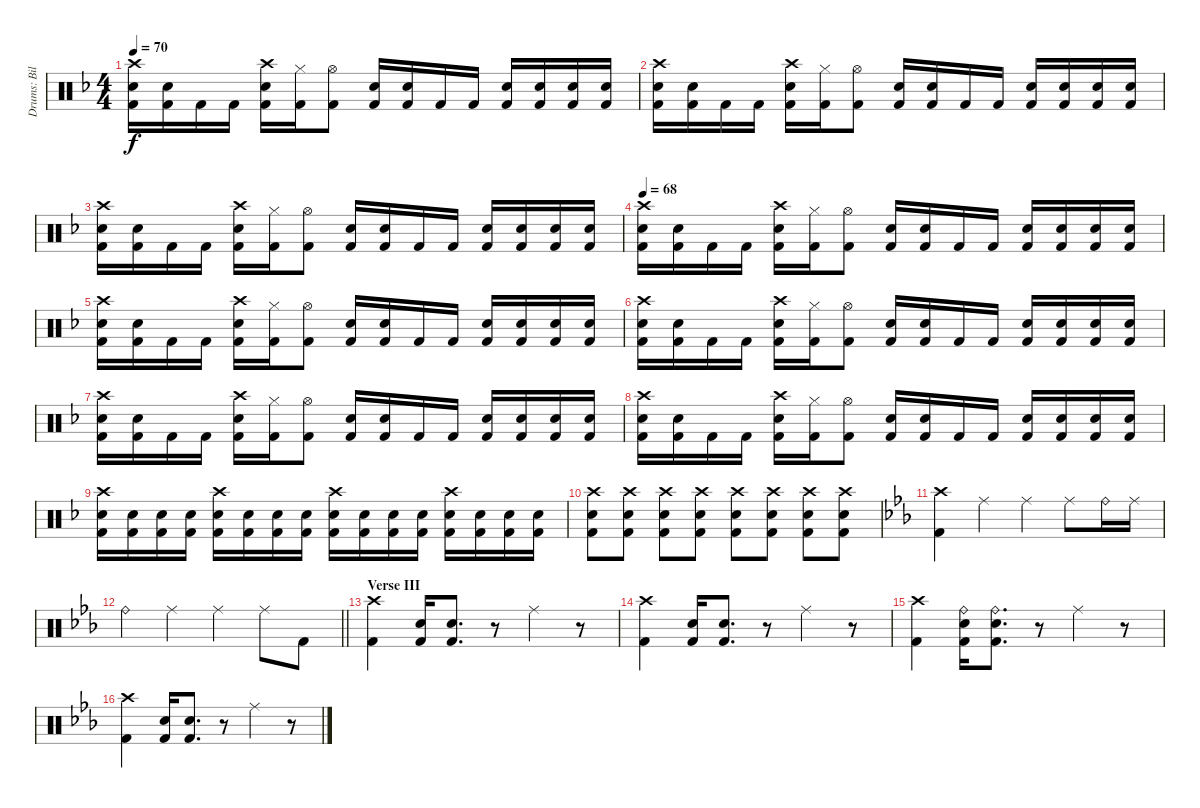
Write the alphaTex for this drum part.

\track ("Drums: Bill" "Drums: Bil") {instrument percussion}
\staff {score}
\articulation defaults
\ts (4 4)
\tempo 70
\clef neutral
\ks dminor
("Crash high (hit)" "Electric Snare (hit)" "Kick (hit) 2").16{dy f} ("Electric Snare (hit)" "Kick (hit) 2").16 "Kick (hit) 2".16 "Kick (hit) 2".16 ("Crash high (hit)" "Snare (hit) 2" "Kick (hit) 2").16 ("Hi-Hat (closed)" "Kick (hit) 2").16 ("Hi-Hat (open)" "Kick (hit) 2").8 ("Electric Snare (hit)" "Kick (hit) 2").16 ("Electric Snare (hit)" "Kick (hit) 2").16 "Kick (hit) 2".16 "Kick (hit) 2".16 ("Electric Snare (hit)" "Kick (hit) 2").16 ("Electric Snare (hit)" "Kick (hit) 2").16 ("Electric Snare (hit)" "Kick (hit) 2").16 ("Electric Snare (hit)" "Kick (hit) 2").16 |
("Crash high (hit)" "Electric Snare (hit)" "Kick (hit) 2").16 ("Electric Snare (hit)" "Kick (hit) 2").16 "Kick (hit) 2".16 "Kick (hit) 2".16 ("Crash high (hit)" "Snare (hit) 2" "Kick (hit) 2").16 ("Hi-Hat (closed)" "Kick (hit) 2").16 ("Hi-Hat (open)" "Kick (hit) 2").8 ("Electric Snare (hit)" "Kick (hit) 2").16 ("Electric Snare (hit)" "Kick (hit) 2").16 "Kick (hit) 2".16 "Kick (hit) 2".16 ("Electric Snare (hit)" "Kick (hit) 2").16 ("Electric Snare (hit)" "Kick (hit) 2").16 ("Electric Snare (hit)" "Kick (hit) 2").16 ("Electric Snare (hit)" "Kick (hit) 2").16 |
("Crash high (hit)" "Electric Snare (hit)" "Kick (hit) 2").16 ("Electric Snare (hit)" "Kick (hit) 2").16 "Kick (hit) 2".16 "Kick (hit) 2".16 ("Crash high (hit)" "Snare (hit) 2" "Kick (hit) 2").16 ("Hi-Hat (closed)" "Kick (hit) 2").16 ("Hi-Hat (open)" "Kick (hit) 2").8 ("Electric Snare (hit)" "Kick (hit) 2").16 ("Electric Snare (hit)" "Kick (hit) 2").16 "Kick (hit) 2".16 "Kick (hit) 2".16 ("Electric Snare (hit)" "Kick (hit) 2").16 ("Electric Snare (hit)" "Kick (hit) 2").16 ("Electric Snare (hit)" "Kick (hit) 2").16 ("Electric Snare (hit)" "Kick (hit) 2").16 |
\tempo 68
("Crash high (hit)" "Electric Snare (hit)" "Kick (hit) 2").16 ("Electric Snare (hit)" "Kick (hit) 2").16 "Kick (hit) 2".16 "Kick (hit) 2".16 ("Crash high (hit)" "Snare (hit) 2" "Kick (hit) 2").16 ("Hi-Hat (closed)" "Kick (hit) 2").16 ("Hi-Hat (open)" "Kick (hit) 2").8 ("Electric Snare (hit)" "Kick (hit) 2").16 ("Electric Snare (hit)" "Kick (hit) 2").16 "Kick (hit) 2".16 "Kick (hit) 2".16 ("Electric Snare (hit)" "Kick (hit) 2").16 ("Electric Snare (hit)" "Kick (hit) 2").16 ("Electric Snare (hit)" "Kick (hit) 2").16 ("Electric Snare (hit)" "Kick (hit) 2").16 |
("Crash high (hit)" "Electric Snare (hit)" "Kick (hit) 2").16 ("Electric Snare (hit)" "Kick (hit) 2").16 "Kick (hit) 2".16 "Kick (hit) 2".16 ("Crash high (hit)" "Snare (hit) 2" "Kick (hit) 2").16 ("Hi-Hat (closed)" "Kick (hit) 2").16 ("Hi-Hat (open)" "Kick (hit) 2").8 ("Electric Snare (hit)" "Kick (hit) 2").16 ("Electric Snare (hit)" "Kick (hit) 2").16 "Kick (hit) 2".16 "Kick (hit) 2".16 ("Electric Snare (hit)" "Kick (hit) 2").16 ("Electric Snare (hit)" "Kick (hit) 2").16 ("Electric Snare (hit)" "Kick (hit) 2").16 ("Electric Snare (hit)" "Kick (hit) 2").16 |
("Crash high (hit)" "Electric Snare (hit)" "Kick (hit) 2").16 ("Electric Snare (hit)" "Kick (hit) 2").16 "Kick (hit) 2".16 "Kick (hit) 2".16 ("Crash high (hit)" "Snare (hit) 2" "Kick (hit) 2").16 ("Hi-Hat (closed)" "Kick (hit) 2").16 ("Hi-Hat (open)" "Kick (hit) 2").8 ("Electric Snare (hit)" "Kick (hit) 2").16 ("Electric Snare (hit)" "Kick (hit) 2").16 "Kick (hit) 2".16 "Kick (hit) 2".16 ("Electric Snare (hit)" "Kick (hit) 2").16 ("Electric Snare (hit)" "Kick (hit) 2").16 ("Electric Snare (hit)" "Kick (hit) 2").16 ("Electric Snare (hit)" "Kick (hit) 2").16 |
("Crash high (hit)" "Electric Snare (hit)" "Kick (hit) 2").16 ("Electric Snare (hit)" "Kick (hit) 2").16 "Kick (hit) 2".16 "Kick (hit) 2".16 ("Crash high (hit)" "Snare (hit) 2" "Kick (hit) 2").16 ("Hi-Hat (closed)" "Kick (hit) 2").16 ("Hi-Hat (open)" "Kick (hit) 2").8 ("Electric Snare (hit)" "Kick (hit) 2").16 ("Electric Snare (hit)" "Kick (hit) 2").16 "Kick (hit) 2".16 "Kick (hit) 2".16 ("Electric Snare (hit)" "Kick (hit) 2").16 ("Electric Snare (hit)" "Kick (hit) 2").16 ("Electric Snare (hit)" "Kick (hit) 2").16 ("Electric Snare (hit)" "Kick (hit) 2").16 |
("Crash high (hit)" "Electric Snare (hit)" "Kick (hit) 2").16 ("Electric Snare (hit)" "Kick (hit) 2").16 "Kick (hit) 2".16 "Kick (hit) 2".16 ("Crash high (hit)" "Snare (hit) 2" "Kick (hit) 2").16 ("Hi-Hat (closed)" "Kick (hit) 2").16 ("Hi-Hat (open)" "Kick (hit) 2").8 ("Electric Snare (hit)" "Kick (hit) 2").16 ("Electric Snare (hit)" "Kick (hit) 2").16 "Kick (hit) 2".16 "Kick (hit) 2".16 ("Electric Snare (hit)" "Kick (hit) 2").16 ("Electric Snare (hit)" "Kick (hit) 2").16 ("Electric Snare (hit)" "Kick (hit) 2").16 ("Electric Snare (hit)" "Kick (hit) 2").16 |
("Crash high (hit)" "Electric Snare (hit)" "Kick (hit) 2").16 ("Electric Snare (hit)" "Kick (hit) 2").16 ("Electric Snare (hit)" "Kick (hit) 2").16 ("Electric Snare (hit)" "Kick (hit) 2").16 ("Crash high (hit)" "Electric Snare (hit)" "Kick (hit) 2").16 ("Electric Snare (hit)" "Kick (hit) 2").16 ("Electric Snare (hit)" "Kick (hit) 2").16 ("Electric Snare (hit)" "Kick (hit) 2").16 ("Crash high (hit)" "Electric Snare (hit)" "Kick (hit) 2").16 ("Electric Snare (hit)" "Kick (hit) 2").16 ("Electric Snare (hit)" "Kick (hit) 2").16 ("Electric Snare (hit)" "Kick (hit) 2").16 ("Crash high (hit)" "Electric Snare (hit)" "Kick (hit) 2").16 ("Electric Snare (hit)" "Kick (hit) 2").16 ("Electric Snare (hit)" "Kick (hit) 2").16 ("Electric Snare (hit)" "Kick (hit) 2").16 |
("Crash high (hit)" "Snare (hit) 2" "Kick (hit) 2").8 ("Crash high (hit)" "Snare (hit) 2" "Kick (hit) 2").8 ("Crash high (hit)" "Snare (hit) 2" "Kick (hit) 2").8 ("Crash high (hit)" "Snare (hit) 2" "Kick (hit) 2").8 ("Crash high (hit)" "Snare (hit) 2" "Kick (hit) 2").8 ("Crash high (hit)" "Snare (hit) 2" "Kick (hit) 2").8 ("Crash high (hit)" "Snare (hit) 2" "Kick (hit) 2").8 ("Crash high (hit)" "Snare (hit) 2" "Kick (hit) 2").8 |
\ks eb
("Crash high (hit)" "Kick (hit) 2").4 "Ride (middle)".4 "Ride (middle)".4 "Ride (middle)".8 "Ride (bell)".16 "Ride (middle)".16 |
\barLineRight lightlight "Ride (bell)".4 "Ride (middle)".4 "Ride (middle)".4 "Ride (middle)".8 "Kick (hit) 2".8
|
\section ("" "Verse III")
("Crash high (hit)" "Kick (hit) 2").4 ("Snare (hit) 2" "Kick (hit) 2").16 ("Snare (hit) 2" "Kick (hit) 2").8{d} r.8 "Ride (middle)".4 r.8 |
("Crash high (hit)" "Kick (hit) 2").4 ("Snare (hit) 2" "Kick (hit) 2").16 ("Snare (hit) 2" "Kick (hit) 2").8{d} r.8 "Ride (middle)".4 r.8 |
("Crash high (hit)" "Kick (hit) 2").4 ("Ride (bell)" "Snare (hit) 2" "Kick (hit) 2").16 ("Ride (bell)" "Snare (hit) 2" "Kick (hit) 2").8{d} r.8 "Ride (middle)".4 r.8 |
("Crash high (hit)" "Kick (hit) 2").4 ("Snare (hit) 2" "Kick (hit) 2").16 ("Snare (hit) 2" "Kick (hit) 2").8{d} r.8 "Ride (middle)".4 r.8
